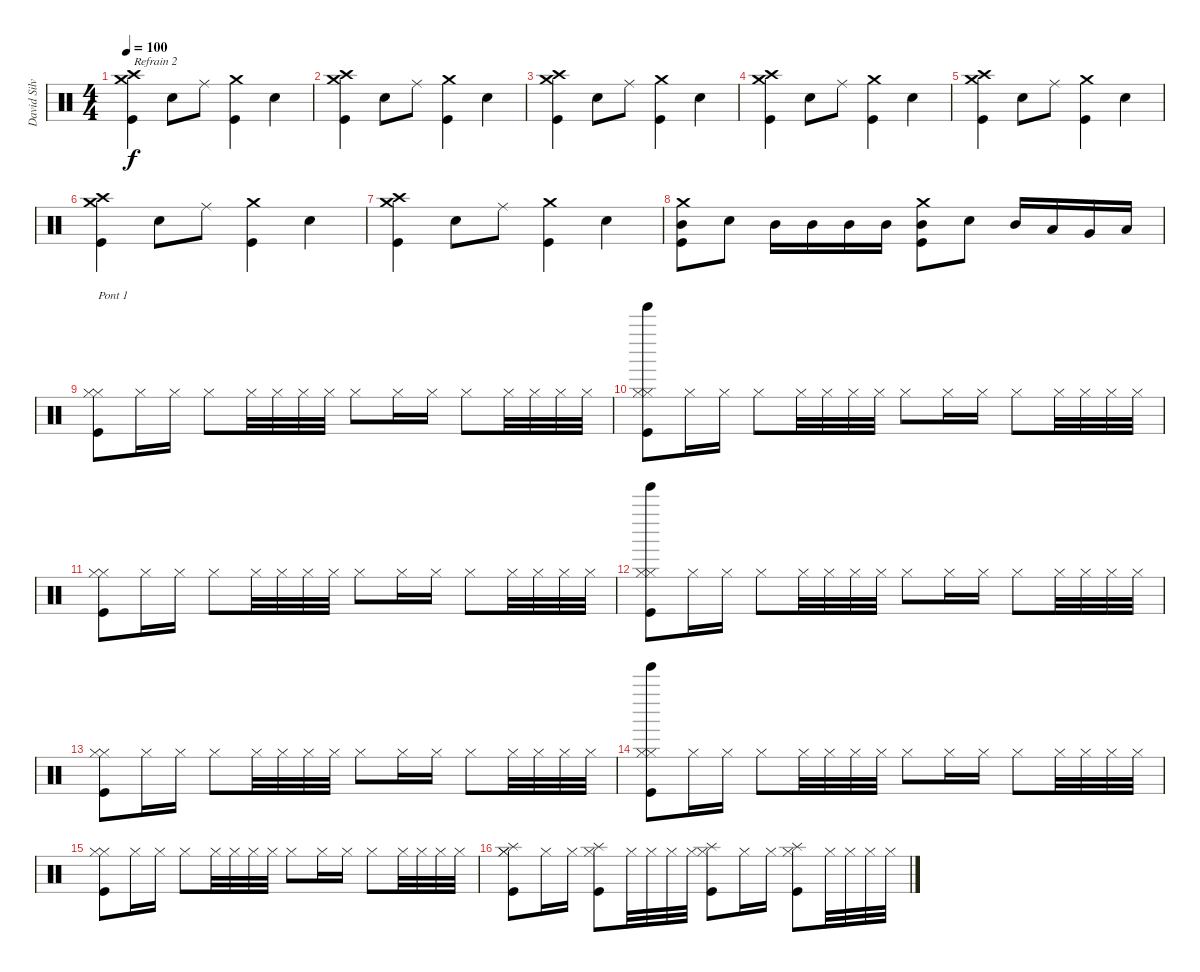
\track ("David Silviera" "David Silv") {instrument percussion}
\staff {score}
\articulation defaults
\ts (4 4)
\tempo 100
\clef neutral
\ks c
("Crash medium (hit)" "Crash high (hit)" "Kick (hit)").4{txt "Refrain 2" dy f} "Electric Snare (hit)".8 "Ride (middle)".8 ("Crash medium (hit)" "Kick (hit)").4 "Electric Snare (hit)".4 |
("Crash medium (hit)" "Crash high (hit)" "Kick (hit)").4 "Electric Snare (hit)".8 "Ride (middle)".8 ("Crash medium (hit)" "Kick (hit)").4 "Electric Snare (hit)".4 |
("Crash medium (hit)" "Crash high (hit)" "Kick (hit)").4 "Electric Snare (hit)".8 "Ride (middle)".8 ("Crash medium (hit)" "Kick (hit)").4 "Electric Snare (hit)".4 |
("Crash medium (hit)" "Crash high (hit)" "Kick (hit)").4 "Electric Snare (hit)".8 "Ride (middle)".8 ("Crash medium (hit)" "Kick (hit)").4 "Electric Snare (hit)".4 |
("Crash medium (hit)" "Crash high (hit)" "Kick (hit)").4 "Electric Snare (hit)".8 "Ride (middle)".8 ("Crash medium (hit)" "Kick (hit)").4 "Electric Snare (hit)".4 |
("Crash medium (hit)" "Crash high (hit)" "Kick (hit)").4 "Electric Snare (hit)".8 "Ride (middle)".8 ("Crash medium (hit)" "Kick (hit)").4 "Electric Snare (hit)".4 |
("Crash medium (hit)" "Crash high (hit)" "Kick (hit)").4 "Electric Snare (hit)".8 "Ride (middle)".8 ("Crash medium (hit)" "Kick (hit)").4 "Electric Snare (hit)".4 |
("Crash medium (hit)" "Mid Tom (hit)" "Kick (hit)").8 "Electric Snare (hit)".8 "Mid Tom (hit)".16 "Mid Tom (hit)".16 "Mid Tom (hit)".16 "Mid Tom (hit)".16 ("Crash medium (hit)" "Mid Tom (hit)" "Kick (hit)").8 "Electric Snare (hit)".8 "Mid Tom (hit)".16 "Low Tom (hit)".16 "Very Low Tom (hit)".16 "Low Floor Tom (hit)".16 |
("Hi-Hat (closed)" "Hi-Hat (closed)" "Kick (hit)").8{txt "Pont 1"} "Hi-Hat (closed)".16 "Hi-Hat (closed)".16 "Hi-Hat (closed)".8 "Hi-Hat (closed)".32 "Hi-Hat (closed)".32 "Hi-Hat (closed)".32 "Hi-Hat (closed)".32 "Hi-Hat (closed)".8 "Hi-Hat (closed)".16 "Hi-Hat (closed)".16 "Hi-Hat (closed)".8 "Hi-Hat (closed)".32 "Hi-Hat (closed)".32 "Hi-Hat (closed)".32 "Hi-Hat (closed)".32 |
("Hi-Hat (closed)" "Tinkle Bell (hit)" "Hi-Hat (closed)" "Kick (hit)").8 "Hi-Hat (closed)".16 "Hi-Hat (closed)".16 "Hi-Hat (closed)".8 "Hi-Hat (closed)".32 "Hi-Hat (closed)".32 "Hi-Hat (closed)".32 "Hi-Hat (closed)".32 "Hi-Hat (closed)".8 "Hi-Hat (closed)".16 "Hi-Hat (closed)".16 "Hi-Hat (closed)".8 "Hi-Hat (closed)".32 "Hi-Hat (closed)".32 "Hi-Hat (closed)".32 "Hi-Hat (closed)".32 |
("Hi-Hat (closed)" "Hi-Hat (closed)" "Kick (hit)").8 "Hi-Hat (closed)".16 "Hi-Hat (closed)".16 "Hi-Hat (closed)".8 "Hi-Hat (closed)".32 "Hi-Hat (closed)".32 "Hi-Hat (closed)".32 "Hi-Hat (closed)".32 "Hi-Hat (closed)".8 "Hi-Hat (closed)".16 "Hi-Hat (closed)".16 "Hi-Hat (closed)".8 "Hi-Hat (closed)".32 "Hi-Hat (closed)".32 "Hi-Hat (closed)".32 "Hi-Hat (closed)".32 |
("Hi-Hat (closed)" "Tinkle Bell (hit)" "Hi-Hat (closed)" "Kick (hit)").8 "Hi-Hat (closed)".16 "Hi-Hat (closed)".16 "Hi-Hat (closed)".8 "Hi-Hat (closed)".32 "Hi-Hat (closed)".32 "Hi-Hat (closed)".32 "Hi-Hat (closed)".32 "Hi-Hat (closed)".8 "Hi-Hat (closed)".16 "Hi-Hat (closed)".16 "Hi-Hat (closed)".8 "Hi-Hat (closed)".32 "Hi-Hat (closed)".32 "Hi-Hat (closed)".32 "Hi-Hat (closed)".32 |
("Hi-Hat (closed)" "Hi-Hat (closed)" "Kick (hit)").8 "Hi-Hat (closed)".16 "Hi-Hat (closed)".16 "Hi-Hat (closed)".8 "Hi-Hat (closed)".32 "Hi-Hat (closed)".32 "Hi-Hat (closed)".32 "Hi-Hat (closed)".32 "Hi-Hat (closed)".8 "Hi-Hat (closed)".16 "Hi-Hat (closed)".16 "Hi-Hat (closed)".8 "Hi-Hat (closed)".32 "Hi-Hat (closed)".32 "Hi-Hat (closed)".32 "Hi-Hat (closed)".32 |
("Hi-Hat (closed)" "Tinkle Bell (hit)" "Hi-Hat (closed)" "Kick (hit)").8 "Hi-Hat (closed)".16 "Hi-Hat (closed)".16 "Hi-Hat (closed)".8 "Hi-Hat (closed)".32 "Hi-Hat (closed)".32 "Hi-Hat (closed)".32 "Hi-Hat (closed)".32 "Hi-Hat (closed)".8 "Hi-Hat (closed)".16 "Hi-Hat (closed)".16 "Hi-Hat (closed)".8 "Hi-Hat (closed)".32 "Hi-Hat (closed)".32 "Hi-Hat (closed)".32 "Hi-Hat (closed)".32 |
("Hi-Hat (closed)" "Hi-Hat (closed)" "Kick (hit)").8 "Hi-Hat (closed)".16 "Hi-Hat (closed)".16 "Hi-Hat (closed)".8 "Hi-Hat (closed)".32 "Hi-Hat (closed)".32 "Hi-Hat (closed)".32 "Hi-Hat (closed)".32 "Hi-Hat (closed)".8 "Hi-Hat (closed)".16 "Hi-Hat (closed)".16 "Hi-Hat (closed)".8 "Hi-Hat (closed)".32 "Hi-Hat (closed)".32 "Hi-Hat (closed)".32 "Hi-Hat (closed)".32 |
("Hi-Hat (closed)" "Splash (hit)" "Hi-Hat (closed)" "Kick (hit)").8 "Hi-Hat (closed)".16 "Hi-Hat (closed)".16 ("Splash (hit)" "Hi-Hat (closed)" "Kick (hit)").8 "Hi-Hat (closed)".32 "Hi-Hat (closed)".32 "Hi-Hat (closed)".32 "Hi-Hat (closed)".32 ("Splash (hit)" "Hi-Hat (closed)" "Kick (hit)").8 "Hi-Hat (closed)".16 "Hi-Hat (closed)".16 ("Splash (hit)" "Hi-Hat (closed)" "Kick (hit)").8 "Hi-Hat (closed)".32 "Hi-Hat (closed)".32 "Hi-Hat (closed)".32 "Hi-Hat (closed)".32
